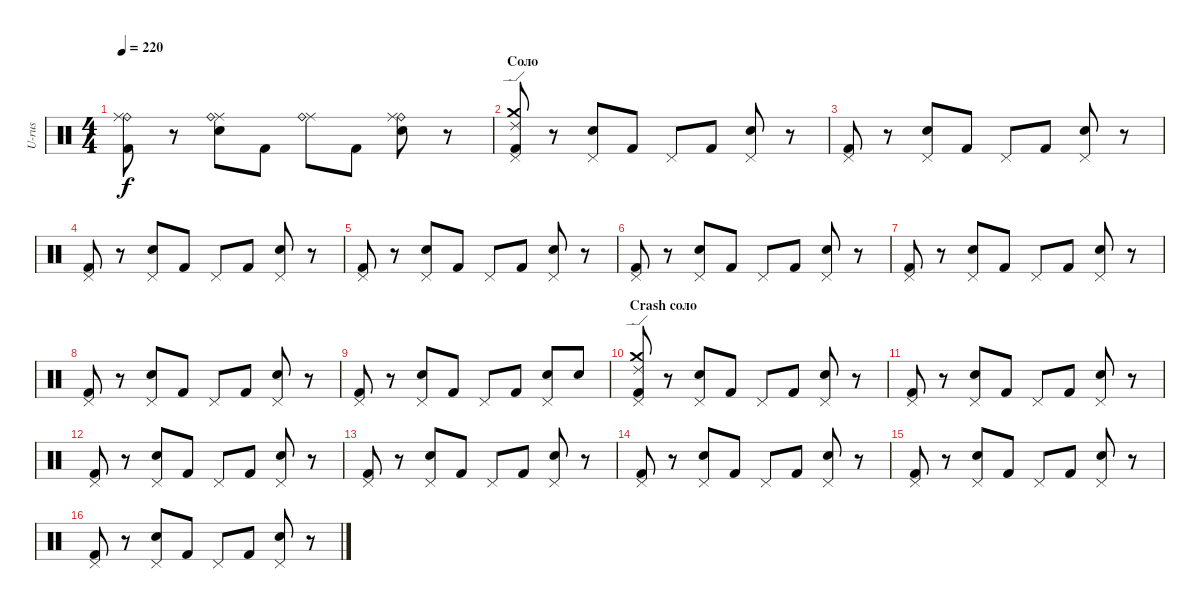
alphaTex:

\track ("U-rus" "U-rus") {instrument percussion}
\staff {score}
\articulation defaults
\ts (4 4)
\tempo 220
\clef neutral
\ks c
("Ride (bell)" "Ride (middle)" "Kick (hit) 2").8{dy f} r.8 ("Ride (middle)" "Ride (bell)" "Snare (hit) 2").8 "Kick (hit) 2".8 ("Ride (middle)" "Ride (bell)").8 "Kick (hit) 2".8 ("Ride (bell)" "Ride (middle)" "Snare (hit) 2").8 r.8 |
\section ("" "Соло")
("Ride (edge) 2" "Crash medium (hit)" "Pedal Hi-Hat (hit)" "Kick (hit) 2").8 r.8 ("Pedal Hi-Hat (hit)" "Snare (hit) 2").8 "Kick (hit) 2".8 "Pedal Hi-Hat (hit)".8 "Kick (hit) 2".8 ("Pedal Hi-Hat (hit)" "Snare (hit) 2").8 r.8 |
("Pedal Hi-Hat (hit)" "Kick (hit) 2").8 r.8 ("Pedal Hi-Hat (hit)" "Snare (hit) 2").8 "Kick (hit) 2".8 "Pedal Hi-Hat (hit)".8 "Kick (hit) 2".8 ("Pedal Hi-Hat (hit)" "Snare (hit) 2").8 r.8 |
("Pedal Hi-Hat (hit)" "Kick (hit) 2").8 r.8 ("Pedal Hi-Hat (hit)" "Snare (hit) 2").8 "Kick (hit) 2".8 "Pedal Hi-Hat (hit)".8 "Kick (hit) 2".8 ("Pedal Hi-Hat (hit)" "Snare (hit) 2").8 r.8 |
("Pedal Hi-Hat (hit)" "Kick (hit) 2").8 r.8 ("Pedal Hi-Hat (hit)" "Snare (hit) 2").8 "Kick (hit) 2".8 "Pedal Hi-Hat (hit)".8 "Kick (hit) 2".8 ("Pedal Hi-Hat (hit)" "Snare (hit) 2").8 r.8 |
("Pedal Hi-Hat (hit)" "Kick (hit) 2").8 r.8 ("Pedal Hi-Hat (hit)" "Snare (hit) 2").8 "Kick (hit) 2".8 "Pedal Hi-Hat (hit)".8 "Kick (hit) 2".8 ("Pedal Hi-Hat (hit)" "Snare (hit) 2").8 r.8 |
("Pedal Hi-Hat (hit)" "Kick (hit) 2").8 r.8 ("Pedal Hi-Hat (hit)" "Snare (hit) 2").8 "Kick (hit) 2".8 "Pedal Hi-Hat (hit)".8 "Kick (hit) 2".8 ("Pedal Hi-Hat (hit)" "Snare (hit) 2").8 r.8 |
("Pedal Hi-Hat (hit)" "Kick (hit) 2").8 r.8 ("Pedal Hi-Hat (hit)" "Snare (hit) 2").8 "Kick (hit) 2".8 "Pedal Hi-Hat (hit)".8 "Kick (hit) 2".8 ("Pedal Hi-Hat (hit)" "Snare (hit) 2").8 r.8 |
("Pedal Hi-Hat (hit)" "Kick (hit) 2").8 r.8 ("Pedal Hi-Hat (hit)" "Snare (hit) 2").8 "Kick (hit) 2".8 "Pedal Hi-Hat (hit)".8 "Kick (hit) 2".8 ("Pedal Hi-Hat (hit)" "Snare (hit) 2").8 "Snare (hit) 2".8 |
\section ("" "Crash соло")
("Ride (edge) 2" "Crash medium (hit)" "Pedal Hi-Hat (hit)" "Kick (hit) 2").8 r.8 ("Pedal Hi-Hat (hit)" "Snare (hit) 2").8 "Kick (hit) 2".8 "Pedal Hi-Hat (hit)".8 "Kick (hit) 2".8 ("Pedal Hi-Hat (hit)" "Snare (hit) 2").8 r.8 |
("Pedal Hi-Hat (hit)" "Kick (hit) 2").8 r.8 ("Pedal Hi-Hat (hit)" "Snare (hit) 2").8 "Kick (hit) 2".8 "Pedal Hi-Hat (hit)".8 "Kick (hit) 2".8 ("Pedal Hi-Hat (hit)" "Snare (hit) 2").8 r.8 |
("Pedal Hi-Hat (hit)" "Kick (hit) 2").8 r.8 ("Pedal Hi-Hat (hit)" "Snare (hit) 2").8 "Kick (hit) 2".8 "Pedal Hi-Hat (hit)".8 "Kick (hit) 2".8 ("Pedal Hi-Hat (hit)" "Snare (hit) 2").8 r.8 |
("Pedal Hi-Hat (hit)" "Kick (hit) 2").8 r.8 ("Pedal Hi-Hat (hit)" "Snare (hit) 2").8 "Kick (hit) 2".8 "Pedal Hi-Hat (hit)".8 "Kick (hit) 2".8 ("Pedal Hi-Hat (hit)" "Snare (hit) 2").8 r.8 |
("Pedal Hi-Hat (hit)" "Kick (hit) 2").8 r.8 ("Pedal Hi-Hat (hit)" "Snare (hit) 2").8 "Kick (hit) 2".8 "Pedal Hi-Hat (hit)".8 "Kick (hit) 2".8 ("Pedal Hi-Hat (hit)" "Snare (hit) 2").8 r.8 |
("Pedal Hi-Hat (hit)" "Kick (hit) 2").8 r.8 ("Pedal Hi-Hat (hit)" "Snare (hit) 2").8 "Kick (hit) 2".8 "Pedal Hi-Hat (hit)".8 "Kick (hit) 2".8 ("Pedal Hi-Hat (hit)" "Snare (hit) 2").8 r.8 |
("Pedal Hi-Hat (hit)" "Kick (hit) 2").8 r.8 ("Pedal Hi-Hat (hit)" "Snare (hit) 2").8 "Kick (hit) 2".8 "Pedal Hi-Hat (hit)".8 "Kick (hit) 2".8 ("Pedal Hi-Hat (hit)" "Snare (hit) 2").8 r.8
